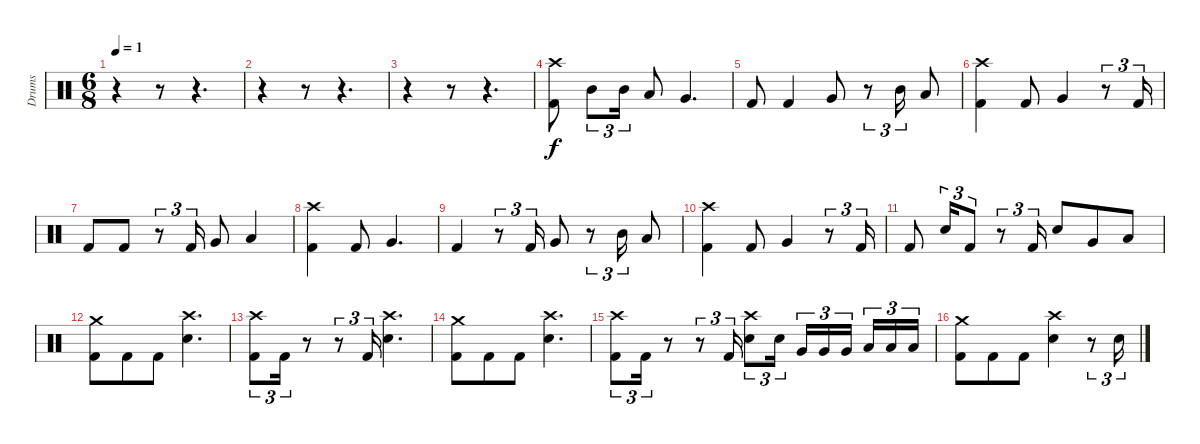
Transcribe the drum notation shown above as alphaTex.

\track ("Drums" "Drums") {instrument percussion}
\staff {score}
\articulation defaults
\ts (6 8)
\tempo 1
\clef neutral
\ks c
r.4{dy f} r.8 r.4{d} |
r.4 r.8 r.4{d} |
r.4 r.8 r.4{d} |
("Crash high (hit)" "Kick (hit) 2").8 "Mid Tom (hit)".8{tu (3 2)} "Mid Tom (hit)".16{tu (3 2)} "Low Floor Tom (hit)".8 "Very Low Tom (hit)".4{d} |
"Kick (hit) 2".8 "Kick (hit) 2".4 "Very Low Tom (hit)".8 r.8{tu (3 2)} "Mid Tom (hit)".16{tu (3 2)} "Low Floor Tom (hit)".8 |
("Crash high (hit)" "Kick (hit) 2").4 "Kick (hit) 2".8 "Very Low Tom (hit)".4 r.8{tu (3 2)} "Kick (hit) 2".16{tu (3 2)} |
"Kick (hit) 2".8 "Kick (hit) 2".8 r.8{tu (3 2)} "Kick (hit) 2".16{tu (3 2)} "Very Low Tom (hit)".8 "Low Tom (hit)".4 |
("Crash high (hit)" "Kick (hit) 2").4 "Kick (hit) 2".8 "Very Low Tom (hit)".4{d} |
"Kick (hit) 2".4 r.8{tu (3 2)} "Kick (hit) 2".16{tu (3 2)} "Very Low Tom (hit)".8 r.8{tu (3 2)} "Mid Tom (hit)".16{tu (3 2)} "Low Floor Tom (hit)".8 |
("Crash high (hit)" "Kick (hit) 2").4 "Kick (hit) 2".8 "Very Low Tom (hit)".4 r.8{tu (3 2)} "Kick (hit) 2".16{tu (3 2)} |
"Kick (hit) 2".8 "Snare (hit) 2".16{tu (3 2)} "Kick (hit) 2".8{tu (3 2)} r.8{tu (3 2)} "Kick (hit) 2".16{tu (3 2)} "Snare (hit) 2".8 "Very Low Tom (hit)".8 "Low Tom (hit)".8 |
("Crash medium (hit)" "Kick (hit) 2").8 "Kick (hit) 2".8 "Kick (hit) 2".8 ("Crash high (hit)" "Snare (hit) 2").4{d} |
("Crash high (hit)" "Kick (hit) 2").8{tu (3 2)} "Kick (hit) 2".16{tu (3 2)} r.8 r.8{tu (3 2)} "Kick (hit) 2".16{tu (3 2)} ("Crash high (hit)" "Snare (hit) 2").4{d} |
("Crash medium (hit)" "Kick (hit) 2").8 "Kick (hit) 2".8 "Kick (hit) 2".8 ("Crash high (hit)" "Snare (hit) 2").4{d} |
("Crash high (hit)" "Kick (hit) 2").8{tu (3 2)} "Kick (hit) 2".16{tu (3 2)} r.8 r.8{tu (3 2)} "Kick (hit) 2".16{tu (3 2)} ("Crash high (hit)" "Snare (hit) 2").8{tu (3 2)} "Snare (hit) 2".16{tu (3 2)} "Very Low Tom (hit)".16{tu (3 2)} "Very Low Tom (hit)".16{tu (3 2)} "Very Low Tom (hit)".16{tu (3 2)} "Low Tom (hit)".16{tu (3 2)} "Low Tom (hit)".16{tu (3 2)} "Low Tom (hit)".16{tu (3 2)} |
("Crash medium (hit)" "Kick (hit) 2").8 "Kick (hit) 2".8 "Kick (hit) 2".8 ("Crash high (hit)" "Snare (hit) 2").4 r.8{tu (3 2)} "Snare (hit) 2".16{tu (3 2)}
